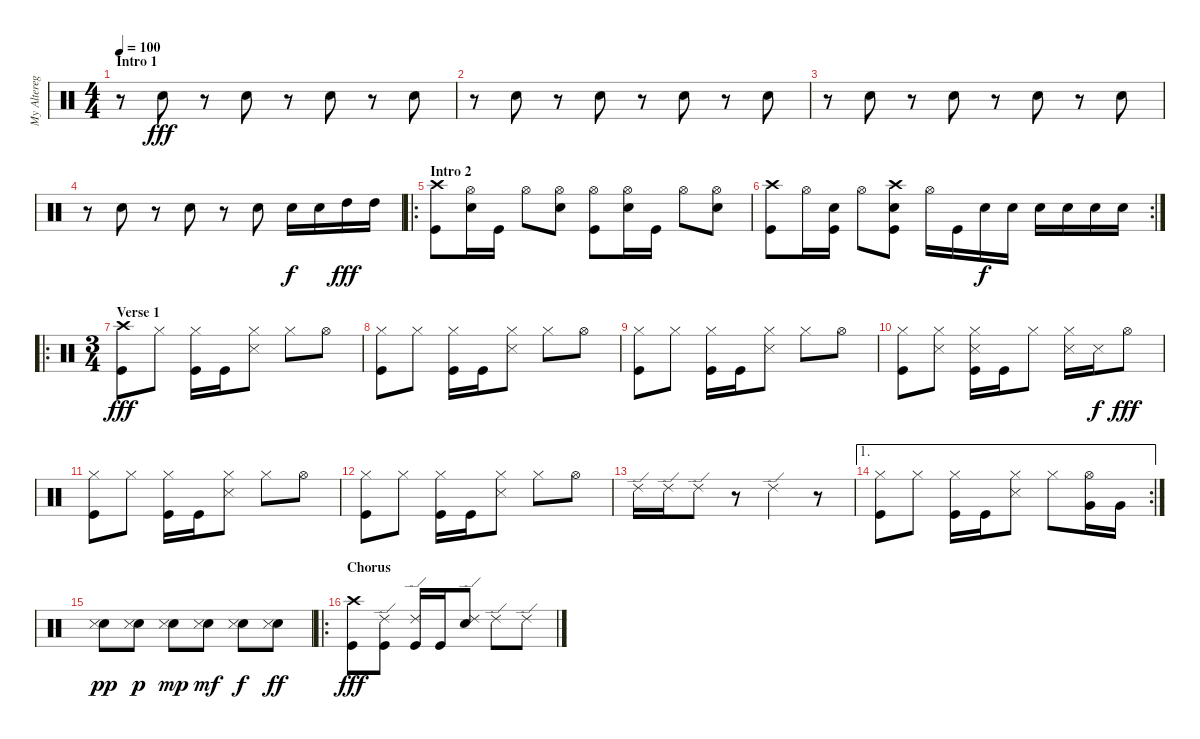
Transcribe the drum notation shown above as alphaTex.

\track ("My Alterego Playing Drums" "My Altereg") {instrument percussion}
\staff {score}
\articulation defaults
\ts (4 4)
\section ("" "Intro 1")
\tempo 100
\clef neutral
\ks c
r.8{dy fff} "Hand Clap (hit)".8 r.8 "Hand Clap (hit)".8 r.8 "Hand Clap (hit)".8 r.8 "Hand Clap (hit)".8 |
r.8 "Hand Clap (hit)".8 r.8 "Hand Clap (hit)".8 r.8 "Hand Clap (hit)".8 r.8 "Hand Clap (hit)".8 |
r.8 "Hand Clap (hit)".8 r.8 "Hand Clap (hit)".8 r.8 "Hand Clap (hit)".8 r.8 "Hand Clap (hit)".8 |
r.8 "Hand Clap (hit)".8 r.8 "Hand Clap (hit)".8 r.8 "Hand Clap (hit)".8 "Snare (hit) 2".16{dy f} "Snare (hit) 2".16 "High Tom (hit)".16{dy fff} "High Tom (hit)".16 |
\ro
\section ("" "Intro 2")
("Crash high (hit)" "Kick (hit)").8 ("Hi-Hat (open)" "Snare (hit) 2").16 "Kick (hit)".16 "Hi-Hat (open)".8 ("Hi-Hat (open)" "Snare (hit) 2").8 ("Hi-Hat (open)" "Kick (hit)").8 ("Hi-Hat (open)" "Snare (hit) 2").16 "Kick (hit)".16 "Hi-Hat (open)".8 ("Hi-Hat (open)" "Snare (hit) 2").8 |
\rc 2
("Crash high (hit)" "Kick (hit)").8 "Hi-Hat (open)".16 ("Snare (hit) 2" "Kick (hit)").16 "Hi-Hat (open)".8 ("Crash high (hit)" "Snare (hit) 2" "Kick (hit)").8 "Hi-Hat (open)".16 "Kick (hit)".16 "Snare (hit) 2".16{dy f} "Snare (hit) 2".16 "Snare (hit) 2".16 "Snare (hit) 2".16 "Snare (hit) 2".16 "Snare (hit) 2".16 |
\ro
\ts (3 4)
\section ("" "Verse 1")
("Crash high (hit)" "Kick (hit)").8{dy fff} "Hi-Hat (closed)".8 ("Hi-Hat (closed)" "Kick (hit)").16 "Kick (hit)".16 ("Hi-Hat (closed)" "Snare (side stick) 3").8 "Hi-Hat (closed)".8 "Hi-Hat (open)".8 |
("Hi-Hat (closed)" "Kick (hit)").8 "Hi-Hat (closed)".8 ("Hi-Hat (closed)" "Kick (hit)").16 "Kick (hit)".16 ("Hi-Hat (closed)" "Snare (side stick) 3").8 "Hi-Hat (closed)".8 "Hi-Hat (open)".8 |
("Hi-Hat (closed)" "Kick (hit)").8 "Hi-Hat (closed)".8 ("Hi-Hat (closed)" "Kick (hit)").16 "Kick (hit)".16 ("Hi-Hat (closed)" "Snare (side stick) 3").8 "Hi-Hat (closed)".8 "Hi-Hat (open)".8 |
("Hi-Hat (closed)" "Kick (hit)").8 ("Hi-Hat (closed)" "Snare (side stick) 3").8 ("Hi-Hat (closed)" "Snare (side stick) 3" "Kick (hit)").16 "Kick (hit)".16 "Hi-Hat (closed)".8 ("Hi-Hat (closed)" "Snare (side stick) 3").16 "Snare (side stick) 3".16{dy f} "Hi-Hat (open)".8{dy fff} |
("Hi-Hat (closed)" "Kick (hit)").8 "Hi-Hat (closed)".8 ("Hi-Hat (closed)" "Kick (hit)").16 "Kick (hit)".16 ("Hi-Hat (closed)" "Snare (side stick) 3").8 "Hi-Hat (closed)".8 "Hi-Hat (open)".8 |
("Hi-Hat (closed)" "Kick (hit)").8 "Hi-Hat (closed)".8 ("Hi-Hat (closed)" "Kick (hit)").16 "Kick (hit)".16 ("Hi-Hat (closed)" "Snare (side stick) 3").8 "Hi-Hat (closed)".8 "Hi-Hat (open)".8 |
"Ride (edge) 2".16 "Ride (edge) 2".16 "Ride (edge) 2".8 r.8 "Ride (edge) 2".4 r.8 |
\ae 1
\rc 2
("Hi-Hat (closed)" "Kick (hit)").8 "Hi-Hat (closed)".8 ("Hi-Hat (closed)" "Kick (hit)").16 "Kick (hit)".16 ("Hi-Hat (closed)" "Snare (side stick) 3").8 "Hi-Hat (closed)".8 ("Hi-Hat (open)" "Very Low Tom (hit)").16 "Very Low Tom (hit)".16 |
("Snare (hit) 2" "Snare (side stick) 3").8{dy pp} ("Snare (hit) 2" "Snare (side stick) 3").8{dy p} ("Snare (hit) 2" "Snare (side stick) 3").8{dy mp} ("Snare (hit) 2" "Snare (side stick) 3").8{dy mf} ("Snare (hit) 2" "Snare (side stick) 3").8{dy f} ("Snare (hit) 2" "Snare (side stick) 3").8{dy ff} |
\ro
\section ("" "Chorus")
("Crash high (hit)" "Kick (hit)").8{dy fff} ("Ride (edge) 2" "Kick (hit)").8 ("Ride (edge) 2" "Kick (hit)").16 "Kick (hit)".16 ("Ride (edge) 2" "Snare (hit) 2").8 "Ride (edge) 2".8 "Ride (edge) 2".8
